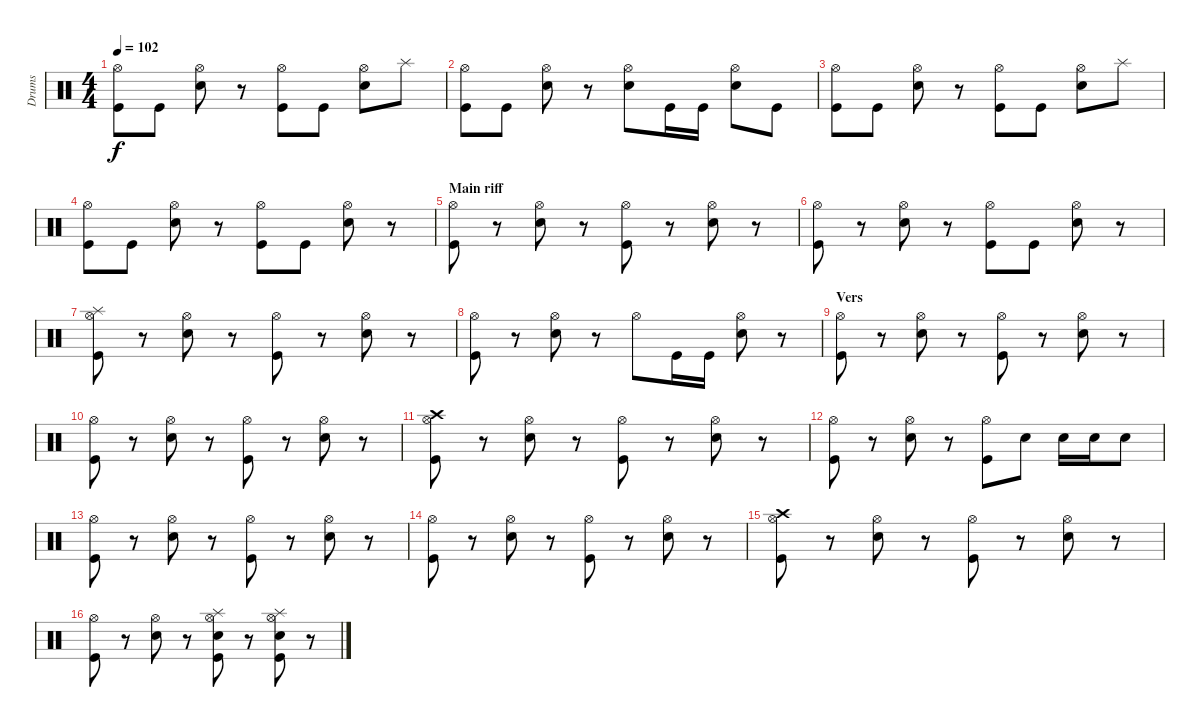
\track ("Drums" "Drums") {instrument percussion}
\staff {score}
\articulation defaults
\ts (4 4)
\tempo 102
\clef neutral
\ks c
("Hi-Hat (open)" "Kick (hit)").8{dy f} "Kick (hit)".8 ("Hi-Hat (open)" "Snare (hit) 2").8 r.8 ("Hi-Hat (open)" "Kick (hit)").8 "Kick (hit)".8 ("Hi-Hat (open)" "Snare (hit) 2").8 "Splash (hit)".8 |
("Hi-Hat (open)" "Kick (hit)").8 "Kick (hit)".8 ("Hi-Hat (open)" "Snare (hit) 2").8 r.8 ("Hi-Hat (open)" "Snare (hit) 2").8 "Kick (hit)".16 "Kick (hit)".16 ("Hi-Hat (open)" "Snare (hit) 2").8 "Kick (hit)".8 |
("Hi-Hat (open)" "Kick (hit)").8 "Kick (hit)".8 ("Hi-Hat (open)" "Snare (hit) 2").8 r.8 ("Hi-Hat (open)" "Kick (hit)").8 "Kick (hit)".8 ("Hi-Hat (open)" "Snare (hit) 2").8 "Splash (hit)".8 |
("Hi-Hat (open)" "Kick (hit)").8 "Kick (hit)".8 ("Hi-Hat (open)" "Snare (hit) 2").8 r.8 ("Hi-Hat (open)" "Kick (hit)").8 "Kick (hit)".8 ("Hi-Hat (open)" "Snare (hit) 2").8 r.8 |
\section ("" "Main riff")
("Hi-Hat (open)" "Kick (hit)").8 r.8 ("Hi-Hat (open)" "Snare (hit) 2").8 r.8 ("Hi-Hat (open)" "Kick (hit)").8 r.8 ("Hi-Hat (open)" "Snare (hit) 2").8 r.8 |
("Hi-Hat (open)" "Kick (hit)").8 r.8 ("Hi-Hat (open)" "Snare (hit) 2").8 r.8 ("Hi-Hat (open)" "Kick (hit)").8 "Kick (hit)".8 ("Hi-Hat (open)" "Snare (hit) 2").8 r.8 |
("Hi-Hat (open)" "Splash (hit)" "Kick (hit)").8 r.8 ("Hi-Hat (open)" "Snare (hit) 2").8 r.8 ("Hi-Hat (open)" "Kick (hit)").8 r.8 ("Hi-Hat (open)" "Snare (hit) 2").8 r.8 |
("Hi-Hat (open)" "Kick (hit)").8 r.8 ("Hi-Hat (open)" "Snare (hit) 2").8 r.8 "Hi-Hat (open)".8 "Kick (hit)".16 "Kick (hit)".16 ("Hi-Hat (open)" "Snare (hit) 2").8 r.8 |
\section ("" "Vers")
("Hi-Hat (open)" "Kick (hit)").8 r.8 ("Hi-Hat (open)" "Snare (hit) 2").8 r.8 ("Hi-Hat (open)" "Kick (hit)").8 r.8 ("Hi-Hat (open)" "Snare (hit) 2").8 r.8 |
("Hi-Hat (open)" "Kick (hit)").8 r.8 ("Hi-Hat (open)" "Snare (hit) 2").8 r.8 ("Hi-Hat (open)" "Kick (hit)").8 r.8 ("Hi-Hat (open)" "Snare (hit) 2").8 r.8 |
("Hi-Hat (open)" "Crash high (hit)" "Kick (hit)").8 r.8 ("Hi-Hat (open)" "Snare (hit) 2").8 r.8 ("Hi-Hat (open)" "Kick (hit)").8 r.8 ("Hi-Hat (open)" "Snare (hit) 2").8 r.8 |
("Hi-Hat (open)" "Kick (hit)").8 r.8 ("Hi-Hat (open)" "Snare (hit) 2").8 r.8 ("Hi-Hat (open)" "Kick (hit)").8 "Snare (hit) 2".8 "Snare (hit) 2".16 "Snare (hit) 2".16 "Snare (hit) 2".8 |
("Hi-Hat (open)" "Kick (hit)").8 r.8 ("Hi-Hat (open)" "Snare (hit) 2").8 r.8 ("Hi-Hat (open)" "Kick (hit)").8 r.8 ("Hi-Hat (open)" "Snare (hit) 2").8 r.8 |
("Hi-Hat (open)" "Kick (hit)").8 r.8 ("Hi-Hat (open)" "Snare (hit) 2").8 r.8 ("Hi-Hat (open)" "Kick (hit)").8 r.8 ("Hi-Hat (open)" "Snare (hit) 2").8 r.8 |
("Hi-Hat (open)" "Crash high (hit)" "Kick (hit)").8 r.8 ("Hi-Hat (open)" "Snare (hit) 2").8 r.8 ("Hi-Hat (open)" "Kick (hit)").8 r.8 ("Hi-Hat (open)" "Snare (hit) 2").8 r.8 |
("Hi-Hat (open)" "Kick (hit)").8 r.8 ("Hi-Hat (open)" "Snare (hit) 2").8 r.8 ("Hi-Hat (open)" "Splash (hit)" "Snare (hit) 2" "Kick (hit)").8 r.8 ("Hi-Hat (open)" "Splash (hit)" "Snare (hit) 2" "Kick (hit)").8 r.8
